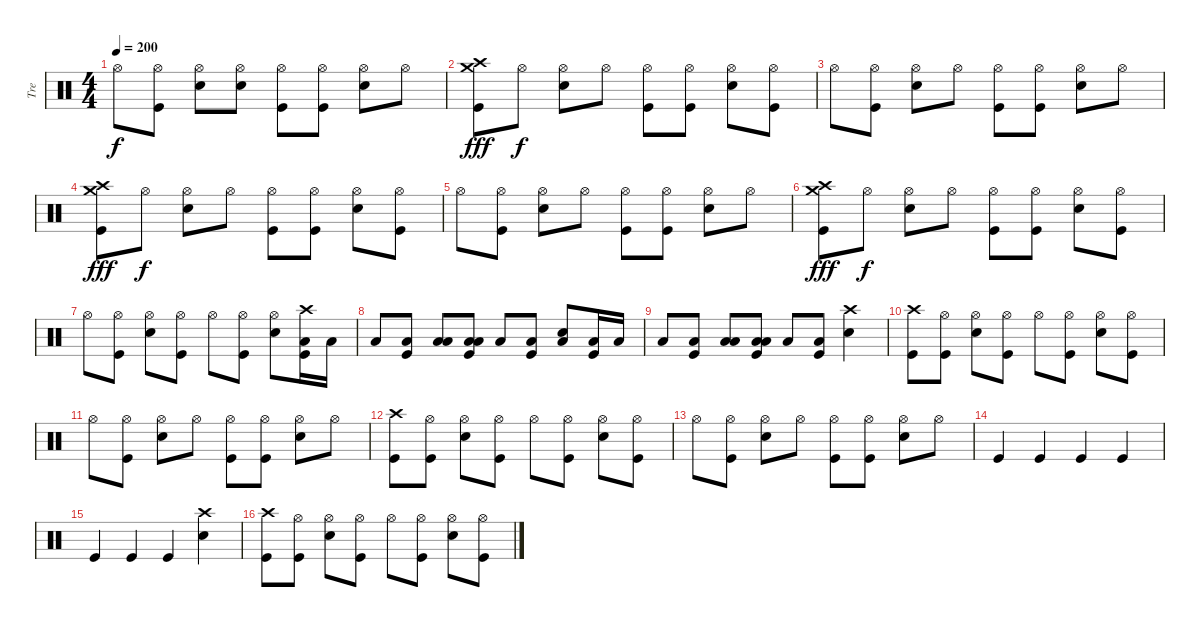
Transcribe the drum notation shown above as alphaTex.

\track ("Tre" "Tre") {instrument percussion}
\staff {score}
\articulation defaults
\ts (4 4)
\tempo 200
\clef neutral
\ks c "Hi-Hat (open)".8{dy f}
("Hi-Hat (open)" "Kick (hit)").8 ("Hi-Hat (open)" "Snare (hit) 2").8 ("Hi-Hat (open)" "Snare (hit) 2").8 ("Hi-Hat (open)" "Kick (hit)").8 ("Hi-Hat (open)" "Kick (hit)").8 ("Hi-Hat (open)" "Snare (hit) 2").8 "Hi-Hat (open)".8 |
("Crash medium (hit)" "Kick (hit)" "Crash high (hit)").8{dy fff} "Hi-Hat (open)".8{dy f} ("Hi-Hat (open)" "Snare (hit) 2").8 "Hi-Hat (open)".8 ("Hi-Hat (open)" "Kick (hit)").8 ("Hi-Hat (open)" "Kick (hit)").8 ("Hi-Hat (open)" "Snare (hit) 2").8 ("Hi-Hat (open)" "Kick (hit)").8 |
"Hi-Hat (open)".8 ("Hi-Hat (open)" "Kick (hit)").8 ("Hi-Hat (open)" "Snare (hit) 2").8 "Hi-Hat (open)".8 ("Hi-Hat (open)" "Kick (hit)").8 ("Hi-Hat (open)" "Kick (hit)").8 ("Hi-Hat (open)" "Snare (hit) 2").8 "Hi-Hat (open)".8 |
("Crash medium (hit)" "Kick (hit)" "Crash high (hit)").8{dy fff} "Hi-Hat (open)".8{dy f} ("Hi-Hat (open)" "Snare (hit) 2").8 "Hi-Hat (open)".8 ("Hi-Hat (open)" "Kick (hit)").8 ("Hi-Hat (open)" "Kick (hit)").8 ("Hi-Hat (open)" "Snare (hit) 2").8 ("Hi-Hat (open)" "Kick (hit)").8 |
"Hi-Hat (open)".8 ("Hi-Hat (open)" "Kick (hit)").8 ("Hi-Hat (open)" "Snare (hit) 2").8 "Hi-Hat (open)".8 ("Hi-Hat (open)" "Kick (hit)").8 ("Hi-Hat (open)" "Kick (hit)").8 ("Hi-Hat (open)" "Snare (hit) 2").8 "Hi-Hat (open)".8 |
("Crash medium (hit)" "Kick (hit)" "Crash high (hit)").8{dy fff} "Hi-Hat (open)".8{dy f} ("Hi-Hat (open)" "Snare (hit) 2").8 "Hi-Hat (open)".8 ("Hi-Hat (open)" "Kick (hit)").8 ("Hi-Hat (open)" "Kick (hit)").8 ("Hi-Hat (open)" "Snare (hit) 2").8 ("Hi-Hat (open)" "Kick (hit)").8 |
"Hi-Hat (open)".8 ("Hi-Hat (open)" "Kick (hit)").8 ("Hi-Hat (open)" "Snare (hit) 2").8 ("Hi-Hat (open)" "Kick (hit)").8 "Hi-Hat (open)".8 ("Hi-Hat (open)" "Kick (hit)").8 ("Hi-Hat (open)" "Snare (hit) 2").8 ("Crash high (hit)" "Low Floor Tom (hit)" "Kick (hit)").16 "Low Floor Tom (hit)".16 |
"Low Floor Tom (hit)".8 ("Low Floor Tom (hit)" "Kick (hit)").8 ("Low Tom (hit)" "Low Floor Tom (hit)").8 ("Low Tom (hit)" "Low Floor Tom (hit)" "Kick (hit)").8 "Low Floor Tom (hit)".8 ("Low Floor Tom (hit)" "Kick (hit)").8 ("Low Floor Tom (hit)" "Snare (hit) 2").8 ("Low Floor Tom (hit)" "Kick (hit)").16 "Low Floor Tom (hit)".16 |
"Low Floor Tom (hit)".8 ("Low Floor Tom (hit)" "Kick (hit)").8 ("Low Tom (hit)" "Low Floor Tom (hit)").8 ("Low Tom (hit)" "Low Floor Tom (hit)" "Kick (hit)").8 "Low Floor Tom (hit)".8 ("Low Floor Tom (hit)" "Kick (hit)").8 ("Snare (hit) 2" "Crash high (hit)").4 |
("Crash high (hit)" "Kick (hit)").8 ("Hi-Hat (open)" "Kick (hit)").8 ("Hi-Hat (open)" "Snare (hit) 2").8 ("Hi-Hat (open)" "Kick (hit)").8 "Hi-Hat (open)".8 ("Hi-Hat (open)" "Kick (hit)").8 ("Hi-Hat (open)" "Snare (hit) 2").8 ("Hi-Hat (open)" "Kick (hit)").8 |
"Hi-Hat (open)".8 ("Hi-Hat (open)" "Kick (hit)").8 ("Hi-Hat (open)" "Snare (hit) 2").8 "Hi-Hat (open)".8 ("Hi-Hat (open)" "Kick (hit)").8 ("Hi-Hat (open)" "Kick (hit)").8 ("Hi-Hat (open)" "Snare (hit) 2").8 "Hi-Hat (open)".8 |
("Crash high (hit)" "Kick (hit)").8 ("Hi-Hat (open)" "Kick (hit)").8 ("Hi-Hat (open)" "Snare (hit) 2").8 ("Hi-Hat (open)" "Kick (hit)").8 "Hi-Hat (open)".8 ("Hi-Hat (open)" "Kick (hit)").8 ("Hi-Hat (open)" "Snare (hit) 2").8 ("Hi-Hat (open)" "Kick (hit)").8 |
"Hi-Hat (open)".8 ("Hi-Hat (open)" "Kick (hit)").8 ("Hi-Hat (open)" "Snare (hit) 2").8 "Hi-Hat (open)".8 ("Hi-Hat (open)" "Kick (hit)").8 ("Hi-Hat (open)" "Kick (hit)").8 ("Hi-Hat (open)" "Snare (hit) 2").8 "Hi-Hat (open)".8 |
"Kick (hit)".4 "Kick (hit)".4 "Kick (hit)".4 "Kick (hit)".4 |
"Kick (hit)".4 "Kick (hit)".4 "Kick (hit)".4 ("Snare (hit) 2" "Crash high (hit)").4 |
("Crash high (hit)" "Kick (hit)").8 ("Hi-Hat (open)" "Kick (hit)").8 ("Hi-Hat (open)" "Snare (hit) 2").8 ("Hi-Hat (open)" "Kick (hit)").8 "Hi-Hat (open)".8 ("Hi-Hat (open)" "Kick (hit)").8 ("Hi-Hat (open)" "Snare (hit) 2").8 ("Hi-Hat (open)" "Kick (hit)").8
